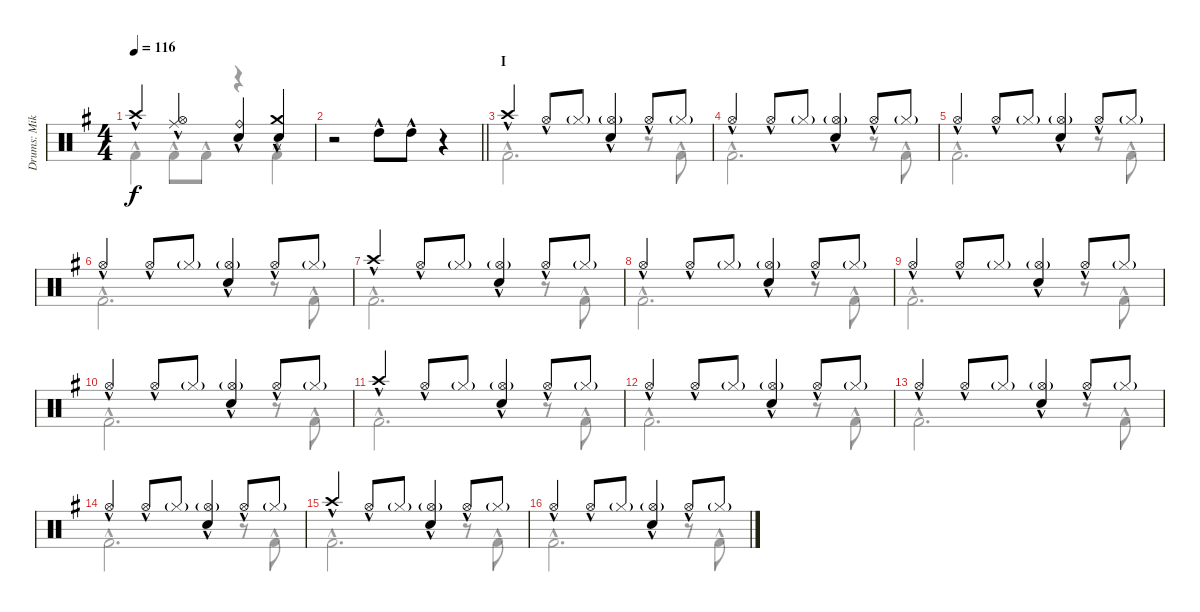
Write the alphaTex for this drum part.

\track ("Drums: Mike" "Drums: Mik") {instrument percussion}
\staff {score}
\articulation defaults
\voice
\ts (4 4)
\tempo 116
\clef neutral
\ks g "Crash high (hit)"{hac}.4{dy f}
("Ride (middle)"{hac} "Hi-Hat (open)"{hac}).4 ("Ride (bell)"{hac} "Snare (hit) 2"{hac}).4 ("Crash medium (hit)"{hac} "Snare (hit) 2"{hac}).4 |
\barLineRight lightlight
r.2 "High Tom (hit)"{hac}.8 "High Tom (hit)"{hac}.8 r.4 |
\section ("" "I")
"Crash high (hit)"{hac}.4 "Hi-Hat (open)"{hac}.8 "Hi-Hat (closed)"{g}.8 ("Hi-Hat (open)"{g} "Snare (hit) 2"{hac}).4 "Hi-Hat (open)"{hac}.8 "Hi-Hat (closed)"{g}.8 |
"Hi-Hat (open)"{hac}.4 "Hi-Hat (open)"{hac}.8 "Hi-Hat (closed)"{g}.8 ("Hi-Hat (open)"{g} "Snare (hit) 2"{hac}).4 "Hi-Hat (open)"{hac}.8 "Hi-Hat (closed)"{g}.8 |
"Hi-Hat (open)"{hac}.4 "Hi-Hat (open)"{hac}.8 "Hi-Hat (closed)"{g}.8 ("Hi-Hat (open)"{g} "Snare (hit) 2"{hac}).4 "Hi-Hat (open)"{hac}.8 "Hi-Hat (closed)"{g}.8 |
"Hi-Hat (open)"{hac}.4 "Hi-Hat (open)"{hac}.8 "Hi-Hat (closed)"{g}.8 ("Hi-Hat (open)"{g} "Snare (hit) 2"{hac}).4 "Hi-Hat (open)"{hac}.8 "Hi-Hat (closed)"{g}.8 |
"Crash high (hit)"{hac}.4 "Hi-Hat (open)"{hac}.8 "Hi-Hat (closed)"{g}.8 ("Hi-Hat (open)"{g} "Snare (hit) 2"{hac}).4 "Hi-Hat (open)"{hac}.8 "Hi-Hat (closed)"{g}.8 |
"Hi-Hat (open)"{hac}.4 "Hi-Hat (open)"{hac}.8 "Hi-Hat (closed)"{g}.8 ("Hi-Hat (open)"{g} "Snare (hit) 2"{hac}).4 "Hi-Hat (open)"{hac}.8 "Hi-Hat (closed)"{g}.8 |
"Hi-Hat (open)"{hac}.4 "Hi-Hat (open)"{hac}.8 "Hi-Hat (closed)"{g}.8 ("Hi-Hat (open)"{g} "Snare (hit) 2"{hac}).4 "Hi-Hat (open)"{hac}.8 "Hi-Hat (closed)"{g}.8 |
"Hi-Hat (open)"{hac}.4 "Hi-Hat (open)"{hac}.8 "Hi-Hat (closed)"{g}.8 ("Hi-Hat (open)"{g} "Snare (hit) 2"{hac}).4 "Hi-Hat (open)"{hac}.8 "Hi-Hat (closed)"{g}.8 |
"Crash high (hit)"{hac}.4 "Hi-Hat (open)"{hac}.8 "Hi-Hat (closed)"{g}.8 ("Hi-Hat (open)"{g} "Snare (hit) 2"{hac}).4 "Hi-Hat (open)"{hac}.8 "Hi-Hat (closed)"{g}.8 |
"Hi-Hat (open)"{hac}.4 "Hi-Hat (open)"{hac}.8 "Hi-Hat (closed)"{g}.8 ("Hi-Hat (open)"{g} "Snare (hit) 2"{hac}).4 "Hi-Hat (open)"{hac}.8 "Hi-Hat (closed)"{g}.8 |
"Hi-Hat (open)"{hac}.4 "Hi-Hat (open)"{hac}.8 "Hi-Hat (closed)"{g}.8 ("Hi-Hat (open)"{g} "Snare (hit) 2"{hac}).4 "Hi-Hat (open)"{hac}.8 "Hi-Hat (closed)"{g}.8 |
"Hi-Hat (open)"{hac}.4 "Hi-Hat (open)"{hac}.8 "Hi-Hat (closed)"{g}.8 ("Hi-Hat (open)"{g} "Snare (hit) 2"{hac}).4 "Hi-Hat (open)"{hac}.8 "Hi-Hat (closed)"{g}.8 |
"Crash high (hit)"{hac}.4 "Hi-Hat (open)"{hac}.8 "Hi-Hat (closed)"{g}.8 ("Hi-Hat (open)"{g} "Snare (hit) 2"{hac}).4 "Hi-Hat (open)"{hac}.8 "Hi-Hat (closed)"{g}.8 |
"Hi-Hat (open)"{hac}.4 "Hi-Hat (open)"{hac}.8 "Hi-Hat (closed)"{g}.8 ("Hi-Hat (open)"{g} "Snare (hit) 2"{hac}).4 "Hi-Hat (open)"{hac}.8 "Hi-Hat (closed)"{g}.8
\voice
\clef neutral
\ottava regular
\simile none
\ks g "Kick (hit) 2"{hac}.4{dy f} "Kick (hit) 2"{hac}.8 "Kick (hit) 2"{hac}.8
r.4 "Kick (hit) 2"{hac}.4 |
\barLineRight lightlight
|
"Kick (hit) 2"{hac}.2{d} r.8 "Kick (hit) 2"{hac}.8 |
"Kick (hit) 2"{hac}.2{d} r.8 "Kick (hit) 2"{hac}.8 |
"Kick (hit) 2"{hac}.2{d} r.8 "Kick (hit) 2"{hac}.8 |
"Kick (hit) 2"{hac}.2{d} r.8 "Kick (hit) 2"{hac}.8 |
"Kick (hit) 2"{hac}.2{d} r.8 "Kick (hit) 2"{hac}.8 |
"Kick (hit) 2"{hac}.2{d} r.8 "Kick (hit) 2"{hac}.8 |
"Kick (hit) 2"{hac}.2{d} r.8 "Kick (hit) 2"{hac}.8 |
"Kick (hit) 2"{hac}.2{d} r.8 "Kick (hit) 2"{hac}.8 |
"Kick (hit) 2"{hac}.2{d} r.8 "Kick (hit) 2"{hac}.8 |
"Kick (hit) 2"{hac}.2{d} r.8 "Kick (hit) 2"{hac}.8 |
"Kick (hit) 2"{hac}.2{d} r.8 "Kick (hit) 2"{hac}.8 |
"Kick (hit) 2"{hac}.2{d} r.8 "Kick (hit) 2"{hac}.8 |
"Kick (hit) 2"{hac}.2{d} r.8 "Kick (hit) 2"{hac}.8 |
"Kick (hit) 2"{hac}.2{d} r.8 "Kick (hit) 2"{hac}.8
